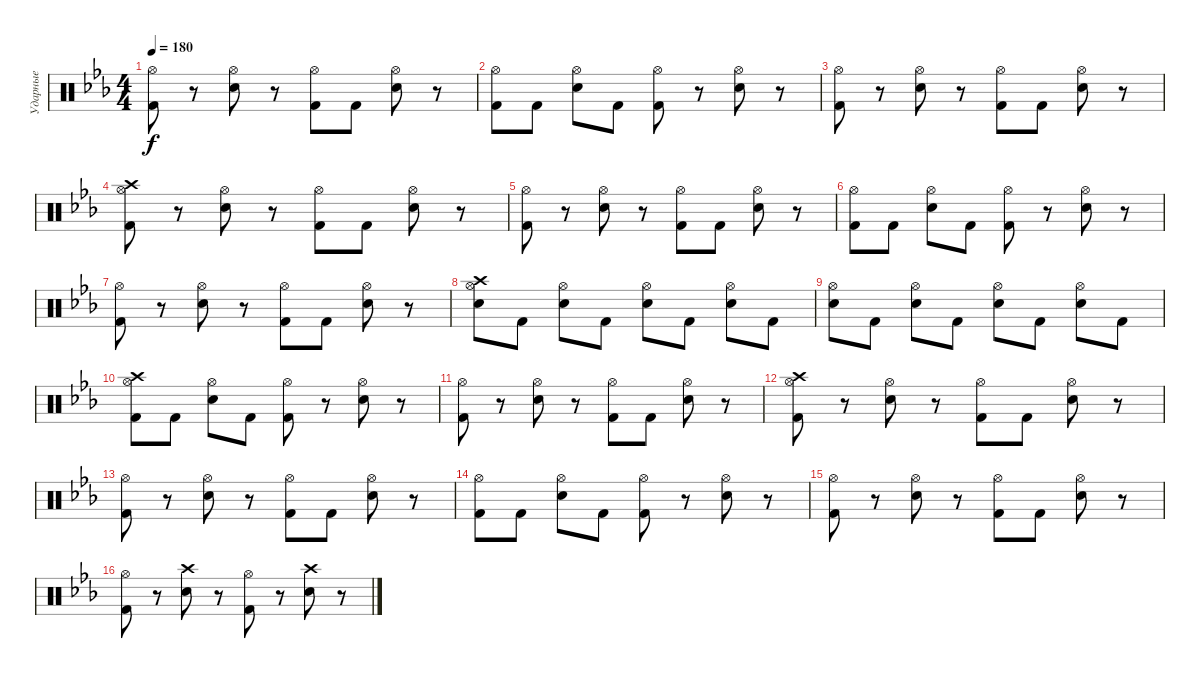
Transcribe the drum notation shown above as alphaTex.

\track ("Ударные" "Ударные") {instrument percussion}
\staff {score}
\articulation defaults
\ts (4 4)
\tempo 180
\clef neutral
\ks eb
("Hi-Hat (open)" "Kick (hit) 2").8{dy f} r.8 ("Hi-Hat (open)" "Electric Snare (hit)").8 r.8 ("Hi-Hat (open)" "Kick (hit) 2").8 "Kick (hit) 2".8 ("Hi-Hat (open)" "Electric Snare (hit)").8 r.8 |
("Hi-Hat (open)" "Kick (hit) 2").8 "Kick (hit) 2".8 ("Hi-Hat (open)" "Electric Snare (hit)").8 "Kick (hit) 2".8 ("Hi-Hat (open)" "Kick (hit) 2").8 r.8 ("Hi-Hat (open)" "Electric Snare (hit)").8 r.8 |
("Hi-Hat (open)" "Kick (hit) 2").8 r.8 ("Hi-Hat (open)" "Electric Snare (hit)").8 r.8 ("Hi-Hat (open)" "Kick (hit) 2").8 "Kick (hit) 2".8 ("Hi-Hat (open)" "Electric Snare (hit)").8 r.8 |
("Hi-Hat (open)" "Kick (hit) 2" "Crash high (hit)").8 r.8 ("Hi-Hat (open)" "Electric Snare (hit)").8 r.8 ("Hi-Hat (open)" "Kick (hit) 2").8 "Kick (hit) 2".8 ("Hi-Hat (open)" "Electric Snare (hit)").8 r.8 |
("Hi-Hat (open)" "Kick (hit) 2").8 r.8 ("Hi-Hat (open)" "Electric Snare (hit)").8 r.8 ("Hi-Hat (open)" "Kick (hit) 2").8 "Kick (hit) 2".8 ("Hi-Hat (open)" "Electric Snare (hit)").8 r.8 |
("Hi-Hat (open)" "Kick (hit) 2").8 "Kick (hit) 2".8 ("Hi-Hat (open)" "Electric Snare (hit)").8 "Kick (hit) 2".8 ("Hi-Hat (open)" "Kick (hit) 2").8 r.8 ("Hi-Hat (open)" "Electric Snare (hit)").8 r.8 |
("Hi-Hat (open)" "Kick (hit) 2").8 r.8 ("Hi-Hat (open)" "Electric Snare (hit)").8 r.8 ("Hi-Hat (open)" "Kick (hit) 2").8 "Kick (hit) 2".8 ("Hi-Hat (open)" "Electric Snare (hit)").8 r.8 |
("Hi-Hat (open)" "Electric Snare (hit)" "Crash high (hit)").8 "Kick (hit) 2".8 ("Hi-Hat (open)" "Electric Snare (hit)").8 "Kick (hit) 2".8 ("Hi-Hat (open)" "Electric Snare (hit)").8 "Kick (hit) 2".8 ("Hi-Hat (open)" "Electric Snare (hit)").8 "Kick (hit) 2".8 |
("Hi-Hat (open)" "Electric Snare (hit)").8 "Kick (hit) 2".8 ("Hi-Hat (open)" "Electric Snare (hit)").8 "Kick (hit) 2".8 ("Hi-Hat (open)" "Electric Snare (hit)").8 "Kick (hit) 2".8 ("Hi-Hat (open)" "Electric Snare (hit)").8 "Kick (hit) 2".8 |
("Hi-Hat (open)" "Kick (hit) 2" "Crash high (hit)").8 "Kick (hit) 2".8 ("Hi-Hat (open)" "Electric Snare (hit)").8 "Kick (hit) 2".8 ("Hi-Hat (open)" "Kick (hit) 2").8 r.8 ("Hi-Hat (open)" "Electric Snare (hit)").8 r.8 |
("Hi-Hat (open)" "Kick (hit) 2").8 r.8 ("Hi-Hat (open)" "Electric Snare (hit)").8 r.8 ("Hi-Hat (open)" "Kick (hit) 2").8 "Kick (hit) 2".8 ("Hi-Hat (open)" "Electric Snare (hit)").8 r.8 |
("Hi-Hat (open)" "Kick (hit) 2" "Crash high (hit)").8 r.8 ("Hi-Hat (open)" "Electric Snare (hit)").8 r.8 ("Hi-Hat (open)" "Kick (hit) 2").8 "Kick (hit) 2".8 ("Hi-Hat (open)" "Electric Snare (hit)").8 r.8 |
("Hi-Hat (open)" "Kick (hit) 2").8 r.8 ("Hi-Hat (open)" "Electric Snare (hit)").8 r.8 ("Hi-Hat (open)" "Kick (hit) 2").8 "Kick (hit) 2".8 ("Hi-Hat (open)" "Electric Snare (hit)").8 r.8 |
("Hi-Hat (open)" "Kick (hit) 2").8 "Kick (hit) 2".8 ("Hi-Hat (open)" "Electric Snare (hit)").8 "Kick (hit) 2".8 ("Hi-Hat (open)" "Kick (hit) 2").8 r.8 ("Hi-Hat (open)" "Electric Snare (hit)").8 r.8 |
("Hi-Hat (open)" "Kick (hit) 2").8 r.8 ("Hi-Hat (open)" "Electric Snare (hit)").8 r.8 ("Hi-Hat (open)" "Kick (hit) 2").8 "Kick (hit) 2".8 ("Hi-Hat (open)" "Electric Snare (hit)").8 r.8 |
("Hi-Hat (open)" "Kick (hit) 2").8 r.8 ("Electric Snare (hit)" "Crash high (hit)").8 r.8 ("Hi-Hat (open)" "Kick (hit) 2").8 r.8 ("Electric Snare (hit)" "Crash high (hit)").8 r.8
